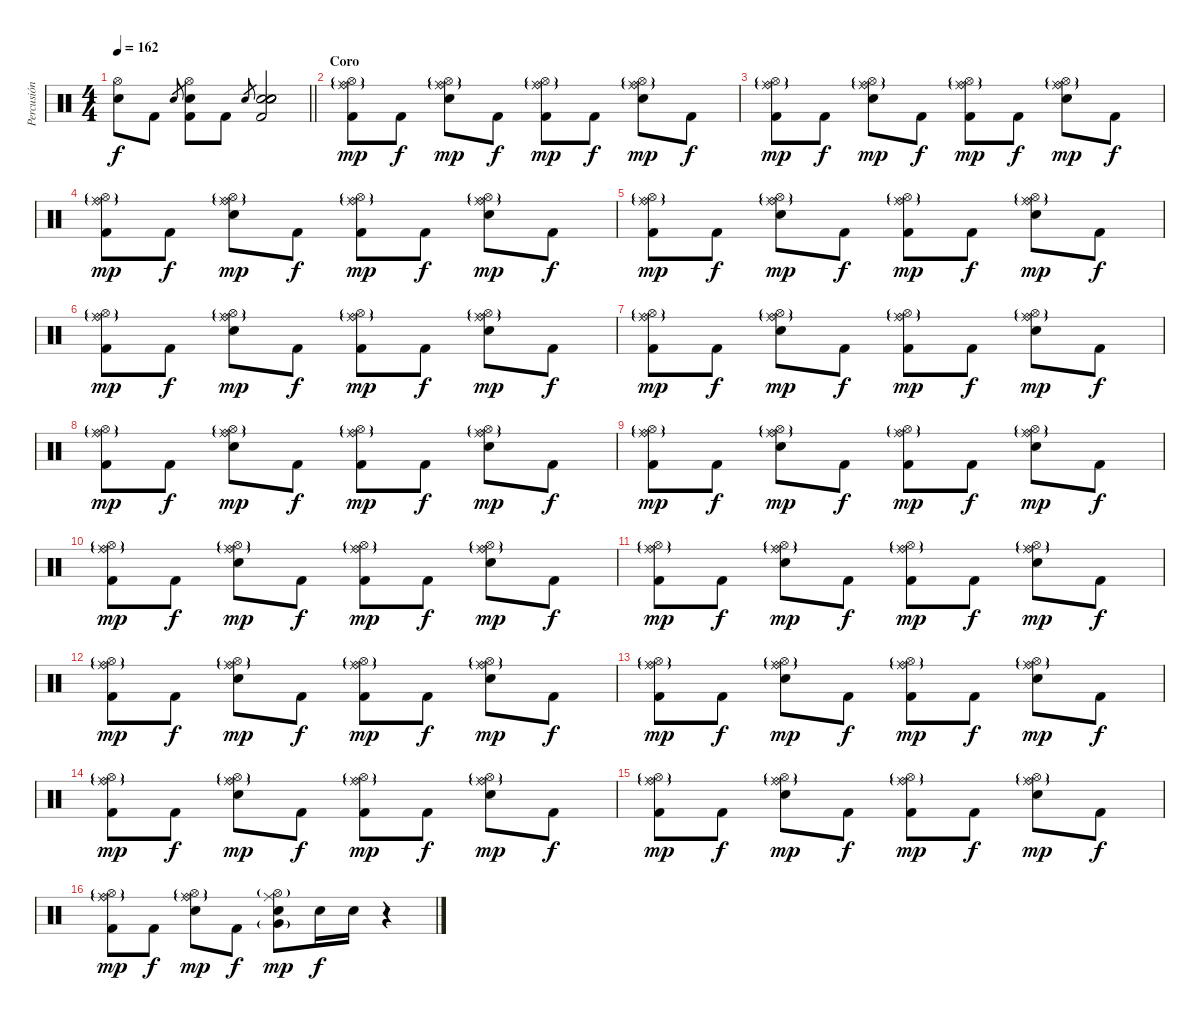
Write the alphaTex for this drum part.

\track ("Percusión" "Percusión") {instrument percussion}
\staff {score}
\articulation defaults
\ts (4 4)
\tempo 162
\clef neutral
\barLineRight lightlight
\ks c
("Hi-Hat (open)" "Electric Snare (hit)").8{dy f} "Kick (hit) 2".8 "Electric Snare (hit)".8{gr} ("Hi-Hat (open)" "Electric Snare (hit)" "Kick (hit) 2").8 "Kick (hit) 2".8 "Electric Snare (hit)".8{gr} ("Electric Snare (hit)" "Kick (hit) 2" "Electric Snare (hit)" "Electric Snare (hit)" "Electric Snare (hit)").2 |
\section ("" "Coro")
("Ride (middle)" "Hi-Hat (open)"{g} "Ride (bell)"{g} "Kick (hit) 2").8{dy mp} "Kick (hit) 2".8{dy f} ("Ride (middle)" "Hi-Hat (open)"{g} "Ride (bell)"{g} "Electric Snare (hit)").8{dy mp} "Kick (hit) 2".8{dy f} ("Ride (middle)" "Hi-Hat (open)"{g} "Ride (bell)"{g} "Kick (hit) 2").8{dy mp} "Kick (hit) 2".8{dy f} ("Ride (middle)" "Hi-Hat (open)"{g} "Ride (bell)"{g} "Electric Snare (hit)").8{dy mp} "Kick (hit) 2".8{dy f} |
("Ride (middle)" "Hi-Hat (open)"{g} "Ride (bell)"{g} "Kick (hit) 2").8{dy mp} "Kick (hit) 2".8{dy f} ("Ride (middle)" "Hi-Hat (open)"{g} "Ride (bell)"{g} "Electric Snare (hit)").8{dy mp} "Kick (hit) 2".8{dy f} ("Ride (middle)" "Hi-Hat (open)"{g} "Ride (bell)"{g} "Kick (hit) 2").8{dy mp} "Kick (hit) 2".8{dy f} ("Ride (middle)" "Hi-Hat (open)"{g} "Ride (bell)"{g} "Electric Snare (hit)").8{dy mp} "Kick (hit) 2".8{dy f} |
("Ride (middle)" "Hi-Hat (open)"{g} "Ride (bell)"{g} "Kick (hit) 2").8{dy mp} "Kick (hit) 2".8{dy f} ("Ride (middle)" "Hi-Hat (open)"{g} "Ride (bell)"{g} "Electric Snare (hit)").8{dy mp} "Kick (hit) 2".8{dy f} ("Ride (middle)" "Hi-Hat (open)"{g} "Ride (bell)"{g} "Kick (hit) 2").8{dy mp} "Kick (hit) 2".8{dy f} ("Ride (middle)" "Hi-Hat (open)"{g} "Ride (bell)"{g} "Electric Snare (hit)").8{dy mp} "Kick (hit) 2".8{dy f} |
("Ride (middle)" "Hi-Hat (open)"{g} "Ride (bell)"{g} "Kick (hit) 2").8{dy mp} "Kick (hit) 2".8{dy f} ("Ride (middle)" "Hi-Hat (open)"{g} "Ride (bell)"{g} "Electric Snare (hit)").8{dy mp} "Kick (hit) 2".8{dy f} ("Ride (middle)" "Hi-Hat (open)"{g} "Ride (bell)"{g} "Kick (hit) 2").8{dy mp} "Kick (hit) 2".8{dy f} ("Ride (middle)" "Hi-Hat (open)"{g} "Ride (bell)"{g} "Electric Snare (hit)").8{dy mp} "Kick (hit) 2".8{dy f} |
("Ride (middle)" "Hi-Hat (open)"{g} "Ride (bell)"{g} "Kick (hit) 2").8{dy mp} "Kick (hit) 2".8{dy f} ("Ride (middle)" "Hi-Hat (open)"{g} "Ride (bell)"{g} "Electric Snare (hit)").8{dy mp} "Kick (hit) 2".8{dy f} ("Ride (middle)" "Hi-Hat (open)"{g} "Ride (bell)"{g} "Kick (hit) 2").8{dy mp} "Kick (hit) 2".8{dy f} ("Ride (middle)" "Hi-Hat (open)"{g} "Ride (bell)"{g} "Electric Snare (hit)").8{dy mp} "Kick (hit) 2".8{dy f} |
("Ride (middle)" "Hi-Hat (open)"{g} "Ride (bell)"{g} "Kick (hit) 2").8{dy mp} "Kick (hit) 2".8{dy f} ("Ride (middle)" "Hi-Hat (open)"{g} "Ride (bell)"{g} "Electric Snare (hit)").8{dy mp} "Kick (hit) 2".8{dy f} ("Ride (middle)" "Hi-Hat (open)"{g} "Ride (bell)"{g} "Kick (hit) 2").8{dy mp} "Kick (hit) 2".8{dy f} ("Ride (middle)" "Hi-Hat (open)"{g} "Ride (bell)"{g} "Electric Snare (hit)").8{dy mp} "Kick (hit) 2".8{dy f} |
("Ride (middle)" "Hi-Hat (open)"{g} "Ride (bell)"{g} "Kick (hit) 2").8{dy mp} "Kick (hit) 2".8{dy f} ("Ride (middle)" "Hi-Hat (open)"{g} "Ride (bell)"{g} "Electric Snare (hit)").8{dy mp} "Kick (hit) 2".8{dy f} ("Ride (middle)" "Hi-Hat (open)"{g} "Ride (bell)"{g} "Kick (hit) 2").8{dy mp} "Kick (hit) 2".8{dy f} ("Ride (middle)" "Hi-Hat (open)"{g} "Ride (bell)"{g} "Electric Snare (hit)").8{dy mp} "Kick (hit) 2".8{dy f} |
("Ride (middle)" "Hi-Hat (open)"{g} "Ride (bell)"{g} "Kick (hit) 2").8{dy mp} "Kick (hit) 2".8{dy f} ("Ride (middle)" "Hi-Hat (open)"{g} "Ride (bell)"{g} "Electric Snare (hit)").8{dy mp} "Kick (hit) 2".8{dy f} ("Ride (middle)" "Hi-Hat (open)"{g} "Ride (bell)"{g} "Kick (hit) 2").8{dy mp} "Kick (hit) 2".8{dy f} ("Ride (middle)" "Hi-Hat (open)"{g} "Ride (bell)"{g} "Electric Snare (hit)").8{dy mp} "Kick (hit) 2".8{dy f} |
("Ride (middle)" "Hi-Hat (open)"{g} "Ride (bell)"{g} "Kick (hit) 2").8{dy mp} "Kick (hit) 2".8{dy f} ("Ride (middle)" "Hi-Hat (open)"{g} "Ride (bell)"{g} "Electric Snare (hit)").8{dy mp} "Kick (hit) 2".8{dy f} ("Ride (middle)" "Hi-Hat (open)"{g} "Ride (bell)"{g} "Kick (hit) 2").8{dy mp} "Kick (hit) 2".8{dy f} ("Ride (middle)" "Hi-Hat (open)"{g} "Ride (bell)"{g} "Electric Snare (hit)").8{dy mp} "Kick (hit) 2".8{dy f} |
("Ride (middle)" "Hi-Hat (open)"{g} "Ride (bell)"{g} "Kick (hit) 2").8{dy mp} "Kick (hit) 2".8{dy f} ("Ride (middle)" "Hi-Hat (open)"{g} "Ride (bell)"{g} "Electric Snare (hit)").8{dy mp} "Kick (hit) 2".8{dy f} ("Ride (middle)" "Hi-Hat (open)"{g} "Ride (bell)"{g} "Kick (hit) 2").8{dy mp} "Kick (hit) 2".8{dy f} ("Ride (middle)" "Hi-Hat (open)"{g} "Ride (bell)"{g} "Electric Snare (hit)").8{dy mp} "Kick (hit) 2".8{dy f} |
("Ride (middle)" "Hi-Hat (open)"{g} "Ride (bell)"{g} "Kick (hit) 2").8{dy mp} "Kick (hit) 2".8{dy f} ("Ride (middle)" "Hi-Hat (open)"{g} "Ride (bell)"{g} "Electric Snare (hit)").8{dy mp} "Kick (hit) 2".8{dy f} ("Ride (middle)" "Hi-Hat (open)"{g} "Ride (bell)"{g} "Kick (hit) 2").8{dy mp} "Kick (hit) 2".8{dy f} ("Ride (middle)" "Hi-Hat (open)"{g} "Ride (bell)"{g} "Electric Snare (hit)").8{dy mp} "Kick (hit) 2".8{dy f} |
("Ride (middle)" "Hi-Hat (open)"{g} "Ride (bell)"{g} "Kick (hit) 2").8{dy mp} "Kick (hit) 2".8{dy f} ("Ride (middle)" "Hi-Hat (open)"{g} "Ride (bell)"{g} "Electric Snare (hit)").8{dy mp} "Kick (hit) 2".8{dy f} ("Ride (middle)" "Hi-Hat (open)"{g} "Ride (bell)"{g} "Kick (hit) 2").8{dy mp} "Kick (hit) 2".8{dy f} ("Ride (middle)" "Hi-Hat (open)"{g} "Ride (bell)"{g} "Electric Snare (hit)").8{dy mp} "Kick (hit) 2".8{dy f} |
("Ride (middle)" "Hi-Hat (open)"{g} "Ride (bell)"{g} "Kick (hit) 2").8{dy mp} "Kick (hit) 2".8{dy f} ("Ride (middle)" "Hi-Hat (open)"{g} "Ride (bell)"{g} "Electric Snare (hit)").8{dy mp} "Kick (hit) 2".8{dy f} ("Ride (middle)" "Hi-Hat (open)"{g} "Ride (bell)"{g} "Kick (hit) 2").8{dy mp} "Kick (hit) 2".8{dy f} ("Ride (middle)" "Hi-Hat (open)"{g} "Ride (bell)"{g} "Electric Snare (hit)").8{dy mp} "Kick (hit) 2".8{dy f} |
("Ride (middle)" "Hi-Hat (open)"{g} "Ride (bell)"{g} "Kick (hit) 2").8{dy mp} "Kick (hit) 2".8{dy f} ("Ride (middle)" "Hi-Hat (open)"{g} "Ride (bell)"{g} "Electric Snare (hit)").8{dy mp} "Kick (hit) 2".8{dy f} ("Ride (middle)" "Hi-Hat (open)"{g} "Ride (bell)"{g} "Kick (hit) 2").8{dy mp} "Kick (hit) 2".8{dy f} ("Ride (middle)" "Hi-Hat (open)"{g} "Ride (bell)"{g} "Electric Snare (hit)").8{dy mp} "Kick (hit) 2".8{dy f} |
("Ride (middle)" "Hi-Hat (open)"{g} "Ride (bell)"{g} "Kick (hit) 2").8{dy mp} "Kick (hit) 2".8{dy f} ("Ride (middle)" "Hi-Hat (open)"{g} "Ride (bell)"{g} "Electric Snare (hit)").8{dy mp} "Kick (hit) 2".8{dy f} ("Ride (middle)" "Hi-Hat (open)"{g} "Very Low Tom (hit)"{g} "Electric Snare (hit)").8{dy mp} "Electric Snare (hit)".16{dy f} "Electric Snare (hit)".16 r.4
